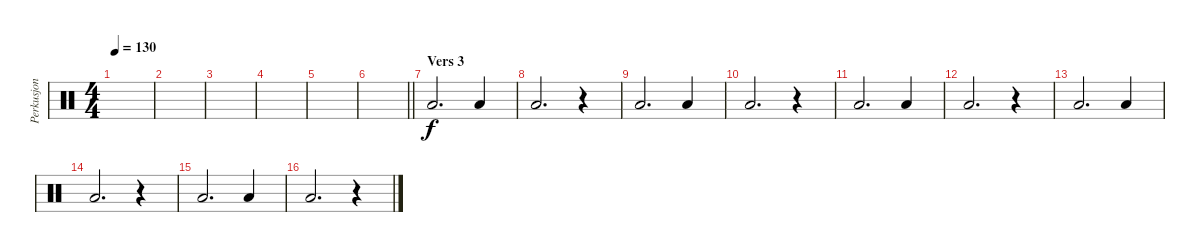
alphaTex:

\track ("Perkusjon" "Perkusjon") {instrument percussion}
\staff {score}
\articulation defaults
\ts (4 4)
\tempo 130
\clef neutral
\ks c
|
|
|
|
|
\barLineRight lightlight
|
\section ("" "Vers 3")
"Low Floor Tom (hit)".2{d} "Low Floor Tom (hit)".4 |
"Low Floor Tom (hit)".2{d} r.4 |
"Low Floor Tom (hit)".2{d} "Low Floor Tom (hit)".4 |
"Low Floor Tom (hit)".2{d} r.4 |
"Low Floor Tom (hit)".2{d} "Low Floor Tom (hit)".4 |
"Low Floor Tom (hit)".2{d} r.4 |
"Low Floor Tom (hit)".2{d} "Low Floor Tom (hit)".4 |
"Low Floor Tom (hit)".2{d} r.4 |
"Low Floor Tom (hit)".2{d} "Low Floor Tom (hit)".4 |
"Low Floor Tom (hit)".2{d} r.4
